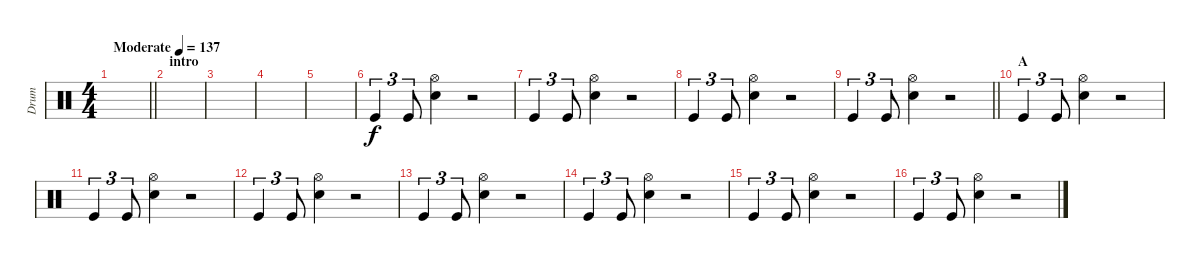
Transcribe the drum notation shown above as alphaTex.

\track ("Drum" "Drum") {instrument percussion}
\staff {score}
\articulation defaults
\ts (4 4)
\tempo (137 "Moderate")
\clef neutral
\barLineRight lightlight
\ks c
|
\section ("" "intro")
|
|
|
|
"Kick (hit)".4{tu (3 2)} "Kick (hit)".8{tu (3 2)} ("Hi-Hat (open)" "Snare (hit) 2").4 r.2 |
"Kick (hit)".4{tu (3 2)} "Kick (hit)".8{tu (3 2)} ("Hi-Hat (open)" "Snare (hit) 2").4 r.2 |
"Kick (hit)".4{tu (3 2)} "Kick (hit)".8{tu (3 2)} ("Hi-Hat (open)" "Snare (hit) 2").4 r.2 |
\barLineRight lightlight "Kick (hit)".4{tu (3 2)} "Kick (hit)".8{tu (3 2)}
("Hi-Hat (open)" "Snare (hit) 2").4 r.2 |
\section ("" "A")
"Kick (hit)".4{tu (3 2)} "Kick (hit)".8{tu (3 2)} ("Hi-Hat (open)" "Snare (hit) 2").4 r.2 |
"Kick (hit)".4{tu (3 2)} "Kick (hit)".8{tu (3 2)} ("Hi-Hat (open)" "Snare (hit) 2").4 r.2 |
"Kick (hit)".4{tu (3 2)} "Kick (hit)".8{tu (3 2)} ("Hi-Hat (open)" "Snare (hit) 2").4 r.2 |
"Kick (hit)".4{tu (3 2)} "Kick (hit)".8{tu (3 2)} ("Hi-Hat (open)" "Snare (hit) 2").4 r.2 |
"Kick (hit)".4{tu (3 2)} "Kick (hit)".8{tu (3 2)} ("Hi-Hat (open)" "Snare (hit) 2").4 r.2 |
"Kick (hit)".4{tu (3 2)} "Kick (hit)".8{tu (3 2)} ("Hi-Hat (open)" "Snare (hit) 2").4 r.2 |
"Kick (hit)".4{tu (3 2)} "Kick (hit)".8{tu (3 2)} ("Hi-Hat (open)" "Snare (hit) 2").4 r.2
